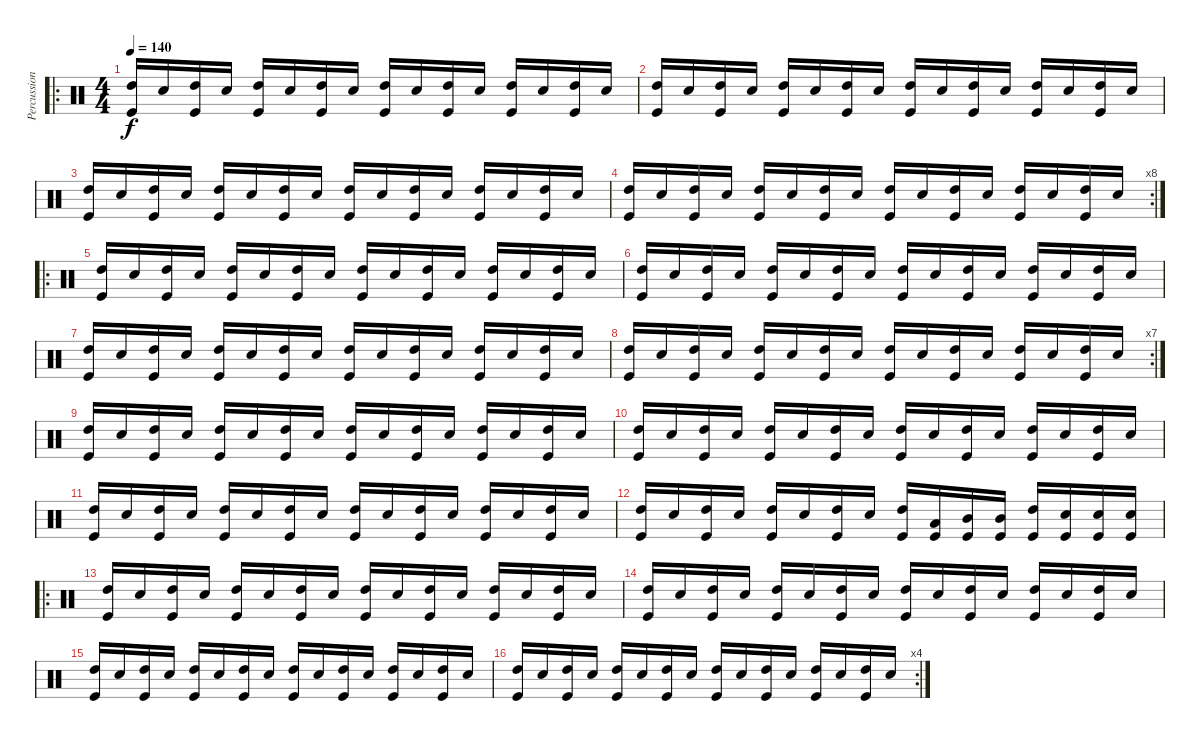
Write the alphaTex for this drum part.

\track ("Percussioni" "Percussion") {instrument percussion}
\staff {score}
\articulation defaults
\ro
\ts (4 4)
\tempo 140
\clef neutral
\ks c
("High Tom (hit)" "Kick (hit)").16{dy f} "Snare (hit) 2".16 ("High Tom (hit)" "Kick (hit)").16 "Snare (hit) 2".16 ("High Tom (hit)" "Kick (hit)").16 "Snare (hit) 2".16 ("High Tom (hit)" "Kick (hit)").16 "Snare (hit) 2".16 ("High Tom (hit)" "Kick (hit)").16 "Snare (hit) 2".16 ("High Tom (hit)" "Kick (hit)").16 "Snare (hit) 2".16 ("High Tom (hit)" "Kick (hit)").16 "Snare (hit) 2".16 ("High Tom (hit)" "Kick (hit)").16 "Snare (hit) 2".16 |
("High Tom (hit)" "Kick (hit)").16 "Snare (hit) 2".16 ("High Tom (hit)" "Kick (hit)").16 "Snare (hit) 2".16 ("High Tom (hit)" "Kick (hit)").16 "Snare (hit) 2".16 ("High Tom (hit)" "Kick (hit)").16 "Snare (hit) 2".16 ("High Tom (hit)" "Kick (hit)").16 "Snare (hit) 2".16 ("High Tom (hit)" "Kick (hit)").16 "Snare (hit) 2".16 ("High Tom (hit)" "Kick (hit)").16 "Snare (hit) 2".16 ("High Tom (hit)" "Kick (hit)").16 "Snare (hit) 2".16 |
("High Tom (hit)" "Kick (hit)").16 "Snare (hit) 2".16 ("High Tom (hit)" "Kick (hit)").16 "Snare (hit) 2".16 ("High Tom (hit)" "Kick (hit)").16 "Snare (hit) 2".16 ("High Tom (hit)" "Kick (hit)").16 "Snare (hit) 2".16 ("High Tom (hit)" "Kick (hit)").16 "Snare (hit) 2".16 ("High Tom (hit)" "Kick (hit)").16 "Snare (hit) 2".16 ("High Tom (hit)" "Kick (hit)").16 "Snare (hit) 2".16 ("High Tom (hit)" "Kick (hit)").16 "Snare (hit) 2".16 |
\rc 8
("High Tom (hit)" "Kick (hit)").16 "Snare (hit) 2".16 ("High Tom (hit)" "Kick (hit)").16 "Snare (hit) 2".16 ("High Tom (hit)" "Kick (hit)").16 "Snare (hit) 2".16 ("High Tom (hit)" "Kick (hit)").16 "Snare (hit) 2".16 ("High Tom (hit)" "Kick (hit)").16 "Snare (hit) 2".16 ("High Tom (hit)" "Kick (hit)").16 "Snare (hit) 2".16 ("High Tom (hit)" "Kick (hit)").16 "Snare (hit) 2".16 ("High Tom (hit)" "Kick (hit)").16 "Snare (hit) 2".16 |
\ro
("High Tom (hit)" "Kick (hit)").16 "Snare (hit) 2".16 ("High Tom (hit)" "Kick (hit)").16 "Snare (hit) 2".16 ("High Tom (hit)" "Kick (hit)").16 "Snare (hit) 2".16 ("High Tom (hit)" "Kick (hit)").16 "Snare (hit) 2".16 ("High Tom (hit)" "Kick (hit)").16 "Snare (hit) 2".16 ("High Tom (hit)" "Kick (hit)").16 "Snare (hit) 2".16 ("High Tom (hit)" "Kick (hit)").16 "Snare (hit) 2".16 ("High Tom (hit)" "Kick (hit)").16 "Snare (hit) 2".16 |
("High Tom (hit)" "Kick (hit)").16 "Snare (hit) 2".16 ("High Tom (hit)" "Kick (hit)").16 "Snare (hit) 2".16 ("High Tom (hit)" "Kick (hit)").16 "Snare (hit) 2".16 ("High Tom (hit)" "Kick (hit)").16 "Snare (hit) 2".16 ("High Tom (hit)" "Kick (hit)").16 "Snare (hit) 2".16 ("High Tom (hit)" "Kick (hit)").16 "Snare (hit) 2".16 ("High Tom (hit)" "Kick (hit)").16 "Snare (hit) 2".16 ("High Tom (hit)" "Kick (hit)").16 "Snare (hit) 2".16 |
("High Tom (hit)" "Kick (hit)").16 "Snare (hit) 2".16 ("High Tom (hit)" "Kick (hit)").16 "Snare (hit) 2".16 ("High Tom (hit)" "Kick (hit)").16 "Snare (hit) 2".16 ("High Tom (hit)" "Kick (hit)").16 "Snare (hit) 2".16 ("High Tom (hit)" "Kick (hit)").16 "Snare (hit) 2".16 ("High Tom (hit)" "Kick (hit)").16 "Snare (hit) 2".16 ("High Tom (hit)" "Kick (hit)").16 "Snare (hit) 2".16 ("High Tom (hit)" "Kick (hit)").16 "Snare (hit) 2".16 |
\rc 7
("High Tom (hit)" "Kick (hit)").16 "Snare (hit) 2".16 ("High Tom (hit)" "Kick (hit)").16 "Snare (hit) 2".16 ("High Tom (hit)" "Kick (hit)").16 "Snare (hit) 2".16 ("High Tom (hit)" "Kick (hit)").16 "Snare (hit) 2".16 ("High Tom (hit)" "Kick (hit)").16 "Snare (hit) 2".16 ("High Tom (hit)" "Kick (hit)").16 "Snare (hit) 2".16 ("High Tom (hit)" "Kick (hit)").16 "Snare (hit) 2".16 ("High Tom (hit)" "Kick (hit)").16 "Snare (hit) 2".16 |
("High Tom (hit)" "Kick (hit)").16 "Snare (hit) 2".16 ("High Tom (hit)" "Kick (hit)").16 "Snare (hit) 2".16 ("High Tom (hit)" "Kick (hit)").16 "Snare (hit) 2".16 ("High Tom (hit)" "Kick (hit)").16 "Snare (hit) 2".16 ("High Tom (hit)" "Kick (hit)").16 "Snare (hit) 2".16 ("High Tom (hit)" "Kick (hit)").16 "Snare (hit) 2".16 ("High Tom (hit)" "Kick (hit)").16 "Snare (hit) 2".16 ("High Tom (hit)" "Kick (hit)").16 "Snare (hit) 2".16 |
("High Tom (hit)" "Kick (hit)").16 "Snare (hit) 2".16 ("High Tom (hit)" "Kick (hit)").16 "Snare (hit) 2".16 ("High Tom (hit)" "Kick (hit)").16 "Snare (hit) 2".16 ("High Tom (hit)" "Kick (hit)").16 "Snare (hit) 2".16 ("High Tom (hit)" "Kick (hit)").16 "Snare (hit) 2".16 ("High Tom (hit)" "Kick (hit)").16 "Snare (hit) 2".16 ("High Tom (hit)" "Kick (hit)").16 "Snare (hit) 2".16 ("High Tom (hit)" "Kick (hit)").16 "Snare (hit) 2".16 |
("High Tom (hit)" "Kick (hit)").16 "Snare (hit) 2".16 ("High Tom (hit)" "Kick (hit)").16 "Snare (hit) 2".16 ("High Tom (hit)" "Kick (hit)").16 "Snare (hit) 2".16 ("High Tom (hit)" "Kick (hit)").16 "Snare (hit) 2".16 ("High Tom (hit)" "Kick (hit)").16 "Snare (hit) 2".16 ("High Tom (hit)" "Kick (hit)").16 "Snare (hit) 2".16 ("High Tom (hit)" "Kick (hit)").16 "Snare (hit) 2".16 ("High Tom (hit)" "Kick (hit)").16 "Snare (hit) 2".16 |
("High Tom (hit)" "Kick (hit)").16 "Snare (hit) 2".16 ("High Tom (hit)" "Kick (hit)").16 "Snare (hit) 2".16 ("High Tom (hit)" "Kick (hit)").16 "Snare (hit) 2".16 ("High Tom (hit)" "Kick (hit)").16 "Snare (hit) 2".16 ("High Tom (hit)" "Kick (hit)").16 ("Low Tom (hit)" "Kick (hit)").16 ("Mid Tom (hit)" "Kick (hit)").16 ("Mid Tom (hit)" "Kick (hit)").16 ("High Tom (hit)" "Kick (hit)").16 ("Snare (hit) 2" "Kick (hit)").16 ("Snare (hit) 2" "Kick (hit)").16 ("Snare (hit) 2" "Kick (hit)").16 |
\ro
("High Tom (hit)" "Kick (hit)").16 "Snare (hit) 2".16 ("High Tom (hit)" "Kick (hit)").16 "Snare (hit) 2".16 ("High Tom (hit)" "Kick (hit)").16 "Snare (hit) 2".16 ("High Tom (hit)" "Kick (hit)").16 "Snare (hit) 2".16 ("High Tom (hit)" "Kick (hit)").16 "Snare (hit) 2".16 ("High Tom (hit)" "Kick (hit)").16 "Snare (hit) 2".16 ("High Tom (hit)" "Kick (hit)").16 "Snare (hit) 2".16 ("High Tom (hit)" "Kick (hit)").16 "Snare (hit) 2".16 |
("High Tom (hit)" "Kick (hit)").16 "Snare (hit) 2".16 ("High Tom (hit)" "Kick (hit)").16 "Snare (hit) 2".16 ("High Tom (hit)" "Kick (hit)").16 "Snare (hit) 2".16 ("High Tom (hit)" "Kick (hit)").16 "Snare (hit) 2".16 ("High Tom (hit)" "Kick (hit)").16 "Snare (hit) 2".16 ("High Tom (hit)" "Kick (hit)").16 "Snare (hit) 2".16 ("High Tom (hit)" "Kick (hit)").16 "Snare (hit) 2".16 ("High Tom (hit)" "Kick (hit)").16 "Snare (hit) 2".16 |
("High Tom (hit)" "Kick (hit)").16 "Snare (hit) 2".16 ("High Tom (hit)" "Kick (hit)").16 "Snare (hit) 2".16 ("High Tom (hit)" "Kick (hit)").16 "Snare (hit) 2".16 ("High Tom (hit)" "Kick (hit)").16 "Snare (hit) 2".16 ("High Tom (hit)" "Kick (hit)").16 "Snare (hit) 2".16 ("High Tom (hit)" "Kick (hit)").16 "Snare (hit) 2".16 ("High Tom (hit)" "Kick (hit)").16 "Snare (hit) 2".16 ("High Tom (hit)" "Kick (hit)").16 "Snare (hit) 2".16 |
\rc 4
("High Tom (hit)" "Kick (hit)").16 "Snare (hit) 2".16 ("High Tom (hit)" "Kick (hit)").16 "Snare (hit) 2".16 ("High Tom (hit)" "Kick (hit)").16 "Snare (hit) 2".16 ("High Tom (hit)" "Kick (hit)").16 "Snare (hit) 2".16 ("High Tom (hit)" "Kick (hit)").16 "Snare (hit) 2".16 ("High Tom (hit)" "Kick (hit)").16 "Snare (hit) 2".16 ("High Tom (hit)" "Kick (hit)").16 "Snare (hit) 2".16 ("High Tom (hit)" "Kick (hit)").16 "Snare (hit) 2".16
